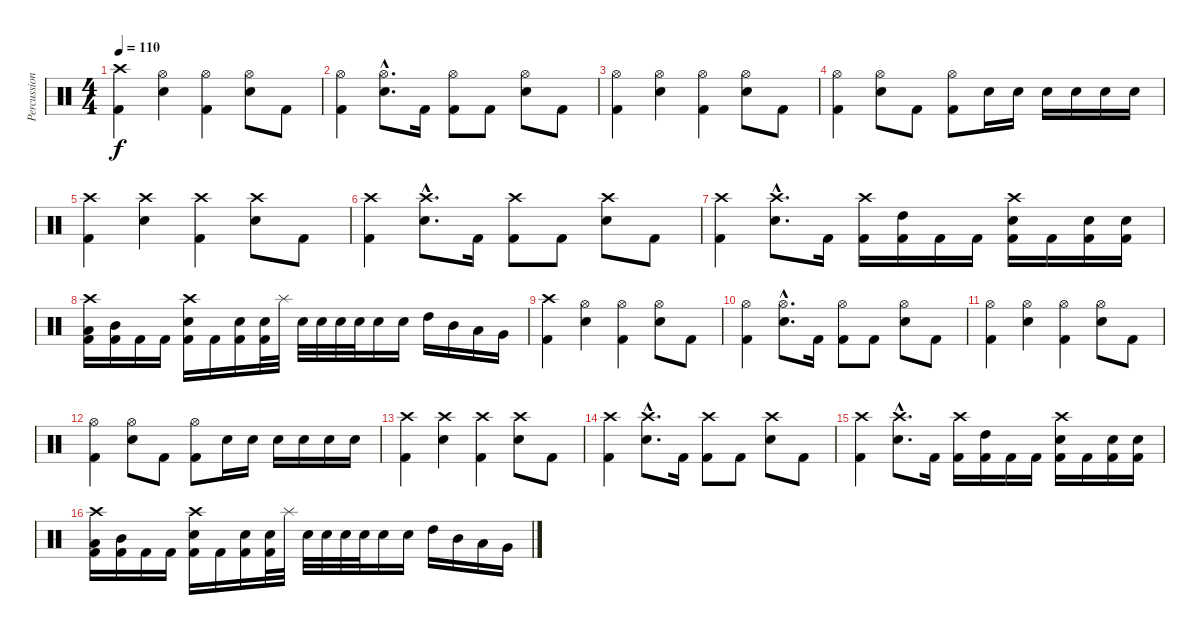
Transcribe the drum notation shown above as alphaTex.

\track ("Percussion" "Percussion") {instrument percussion}
\staff {score}
\articulation defaults
\ts (4 4)
\tempo 110
\clef neutral
\ks c
("Crash high (hit)" "Kick (hit) 2").4{dy f} ("Hi-Hat (open)" "Electric Snare (hit)").4 ("Hi-Hat (open)" "Kick (hit) 2").4 ("Hi-Hat (open)" "Electric Snare (hit)").8 "Kick (hit) 2".8 |
("Hi-Hat (open)" "Kick (hit) 2").4 ("Hi-Hat (open)"{hac} "Electric Snare (hit)"{hac}).8{d} "Kick (hit) 2".16 ("Hi-Hat (open)" "Kick (hit) 2").8 "Kick (hit) 2".8 ("Hi-Hat (open)" "Electric Snare (hit)").8 "Kick (hit) 2".8 |
("Hi-Hat (open)" "Kick (hit) 2").4 ("Hi-Hat (open)" "Electric Snare (hit)").4 ("Hi-Hat (open)" "Kick (hit) 2").4 ("Hi-Hat (open)" "Electric Snare (hit)").8 "Kick (hit) 2".8 |
("Hi-Hat (open)" "Kick (hit) 2").4 ("Hi-Hat (open)" "Electric Snare (hit)").8 "Kick (hit) 2".8 ("Hi-Hat (open)" "Kick (hit) 2").8 "Electric Snare (hit)".16 "Electric Snare (hit)".16 "Electric Snare (hit)".16 "Electric Snare (hit)".16 "Electric Snare (hit)".16 "Electric Snare (hit)".16 |
("Crash high (hit)" "Kick (hit) 2").4 ("Crash high (hit)" "Electric Snare (hit)").4 ("Crash high (hit)" "Kick (hit) 2").4 ("Crash high (hit)" "Electric Snare (hit)").8 "Kick (hit) 2".8 |
("Crash high (hit)" "Kick (hit) 2").4 ("Crash high (hit)"{hac} "Electric Snare (hit)"{hac}).8{d} "Kick (hit) 2".16 ("Crash high (hit)" "Kick (hit) 2").8 "Kick (hit) 2".8 ("Crash high (hit)" "Electric Snare (hit)").8 "Kick (hit) 2".8 |
("Crash high (hit)" "Kick (hit) 2").4 ("Crash high (hit)"{hac} "Electric Snare (hit)"{hac}).8{d} "Kick (hit) 2".16 ("Crash high (hit)" "Kick (hit) 2").16 ("High Tom (hit)" "Kick (hit) 2").16 "Kick (hit) 2".16 "Kick (hit) 2".16 ("Crash high (hit)" "Electric Snare (hit)" "Kick (hit) 2").16 "Kick (hit) 2".16 ("Electric Snare (hit)" "Kick (hit) 2").16 ("Electric Snare (hit)" "Kick (hit) 2").16 |
("Crash high (hit)" "Low Tom (hit)" "Kick (hit) 2").16 ("Mid Tom (hit)" "Kick (hit) 2").16 "Kick (hit) 2".16 "Kick (hit) 2".16 ("Crash high (hit)" "Electric Snare (hit)" "Kick (hit) 2").16 "Kick (hit) 2".16 ("Electric Snare (hit)" "Kick (hit) 2").16 ("Electric Snare (hit)" "Kick (hit) 2").32 "Splash (hit)".32 "Electric Snare (hit)".32 "Electric Snare (hit)".32 "Electric Snare (hit)".32 "Electric Snare (hit)".32 "Electric Snare (hit)".16 "Electric Snare (hit)".16 "High Tom (hit)".16 "Mid Tom (hit)".16 "Low Tom (hit)".16 "Very Low Tom (hit)".16 |
("Crash high (hit)" "Kick (hit) 2").4 ("Hi-Hat (open)" "Electric Snare (hit)").4 ("Hi-Hat (open)" "Kick (hit) 2").4 ("Hi-Hat (open)" "Electric Snare (hit)").8 "Kick (hit) 2".8 |
("Hi-Hat (open)" "Kick (hit) 2").4 ("Hi-Hat (open)"{hac} "Electric Snare (hit)"{hac}).8{d} "Kick (hit) 2".16 ("Hi-Hat (open)" "Kick (hit) 2").8 "Kick (hit) 2".8 ("Hi-Hat (open)" "Electric Snare (hit)").8 "Kick (hit) 2".8 |
("Hi-Hat (open)" "Kick (hit) 2").4 ("Hi-Hat (open)" "Electric Snare (hit)").4 ("Hi-Hat (open)" "Kick (hit) 2").4 ("Hi-Hat (open)" "Electric Snare (hit)").8 "Kick (hit) 2".8 |
("Hi-Hat (open)" "Kick (hit) 2").4 ("Hi-Hat (open)" "Electric Snare (hit)").8 "Kick (hit) 2".8 ("Hi-Hat (open)" "Kick (hit) 2").8 "Electric Snare (hit)".16 "Electric Snare (hit)".16 "Electric Snare (hit)".16 "Electric Snare (hit)".16 "Electric Snare (hit)".16 "Electric Snare (hit)".16 |
("Crash high (hit)" "Kick (hit) 2").4 ("Crash high (hit)" "Electric Snare (hit)").4 ("Crash high (hit)" "Kick (hit) 2").4 ("Crash high (hit)" "Electric Snare (hit)").8 "Kick (hit) 2".8 |
("Crash high (hit)" "Kick (hit) 2").4 ("Crash high (hit)"{hac} "Electric Snare (hit)"{hac}).8{d} "Kick (hit) 2".16 ("Crash high (hit)" "Kick (hit) 2").8 "Kick (hit) 2".8 ("Crash high (hit)" "Electric Snare (hit)").8 "Kick (hit) 2".8 |
("Crash high (hit)" "Kick (hit) 2").4 ("Crash high (hit)"{hac} "Electric Snare (hit)"{hac}).8{d} "Kick (hit) 2".16 ("Crash high (hit)" "Kick (hit) 2").16 ("High Tom (hit)" "Kick (hit) 2").16 "Kick (hit) 2".16 "Kick (hit) 2".16 ("Crash high (hit)" "Electric Snare (hit)" "Kick (hit) 2").16 "Kick (hit) 2".16 ("Electric Snare (hit)" "Kick (hit) 2").16 ("Electric Snare (hit)" "Kick (hit) 2").16 |
("Crash high (hit)" "Low Tom (hit)" "Kick (hit) 2").16 ("Mid Tom (hit)" "Kick (hit) 2").16 "Kick (hit) 2".16 "Kick (hit) 2".16 ("Crash high (hit)" "Electric Snare (hit)" "Kick (hit) 2").16 "Kick (hit) 2".16 ("Electric Snare (hit)" "Kick (hit) 2").16 ("Electric Snare (hit)" "Kick (hit) 2").32 "Splash (hit)".32 "Electric Snare (hit)".32 "Electric Snare (hit)".32 "Electric Snare (hit)".32 "Electric Snare (hit)".32 "Electric Snare (hit)".16 "Electric Snare (hit)".16 "High Tom (hit)".16 "Mid Tom (hit)".16 "Low Tom (hit)".16 "Very Low Tom (hit)".16
